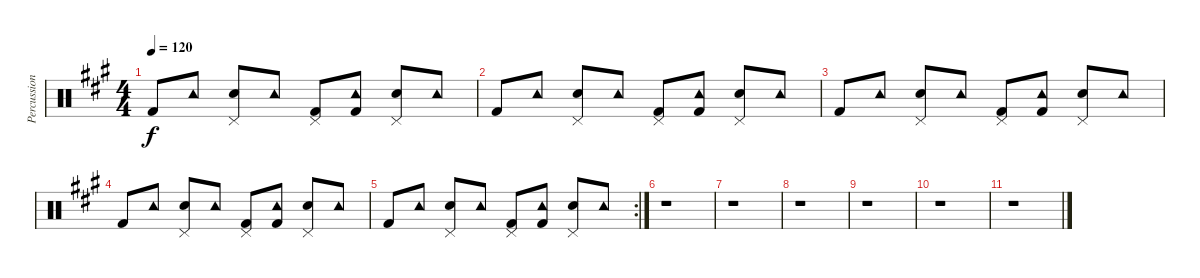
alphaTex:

\track ("Percussion" "Percussion") {instrument percussion}
\staff {score}
\articulation defaults
\ts (4 4)
\tempo 120
\clef neutral
\ks a "Kick (hit) 2".8{dy f} "Tambourine (hit)".8
("Pedal Hi-Hat (hit)" "Snare (hit) 2").8 "Tambourine (hit)".8 ("Pedal Hi-Hat (hit)" "Kick (hit) 2").8 ("Tambourine (hit)" "Kick (hit) 2").8 ("Pedal Hi-Hat (hit)" "Snare (hit) 2").8 "Tambourine (hit)".8 |
"Kick (hit) 2".8 "Tambourine (hit)".8 ("Pedal Hi-Hat (hit)" "Snare (hit) 2").8 "Tambourine (hit)".8 ("Pedal Hi-Hat (hit)" "Kick (hit) 2").8 ("Tambourine (hit)" "Kick (hit) 2").8 ("Pedal Hi-Hat (hit)" "Snare (hit) 2").8 "Tambourine (hit)".8 |
"Kick (hit) 2".8 "Tambourine (hit)".8 ("Pedal Hi-Hat (hit)" "Snare (hit) 2").8 "Tambourine (hit)".8 ("Pedal Hi-Hat (hit)" "Kick (hit) 2").8 ("Tambourine (hit)" "Kick (hit) 2").8 ("Pedal Hi-Hat (hit)" "Snare (hit) 2").8 "Tambourine (hit)".8 |
"Kick (hit) 2".8 "Tambourine (hit)".8 ("Pedal Hi-Hat (hit)" "Snare (hit) 2").8 "Tambourine (hit)".8 ("Pedal Hi-Hat (hit)" "Kick (hit) 2").8 ("Tambourine (hit)" "Kick (hit) 2").8 ("Pedal Hi-Hat (hit)" "Snare (hit) 2").8 "Tambourine (hit)".8 |
\rc 2 "Kick (hit) 2".8 "Tambourine (hit)".8
("Pedal Hi-Hat (hit)" "Snare (hit) 2").8 "Tambourine (hit)".8 ("Pedal Hi-Hat (hit)" "Kick (hit) 2").8 ("Tambourine (hit)" "Kick (hit) 2").8 ("Pedal Hi-Hat (hit)" "Snare (hit) 2").8 "Tambourine (hit)".8 |
r.1 |
r.1 |
r.1 |
r.1 |
r.1 |
r.1
